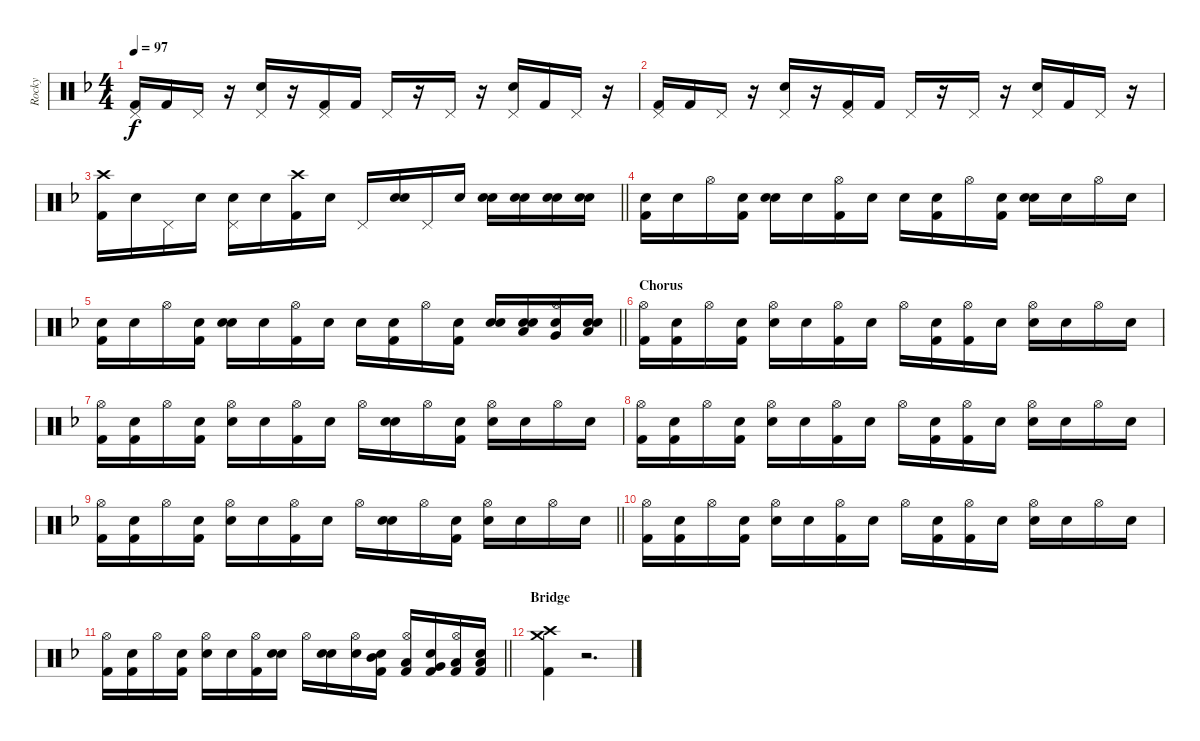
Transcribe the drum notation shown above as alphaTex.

\track ("Rocky" "Rocky") {instrument percussion}
\staff {score}
\articulation defaults
\ts (4 4)
\tempo 97
\clef neutral
\ks f
("Pedal Hi-Hat (hit)" "Kick (hit) 2").16{dy f} "Kick (hit) 2".16 "Pedal Hi-Hat (hit)".16 r.16 ("Pedal Hi-Hat (hit)" "Electric Snare (hit)").16 r.16 ("Pedal Hi-Hat (hit)" "Kick (hit) 2").16 "Kick (hit) 2".16 "Pedal Hi-Hat (hit)".16 r.16 "Pedal Hi-Hat (hit)".16 r.16 ("Pedal Hi-Hat (hit)" "Electric Snare (hit)").16 "Kick (hit) 2".16 "Pedal Hi-Hat (hit)".16 r.16 |
("Pedal Hi-Hat (hit)" "Kick (hit) 2").16 "Kick (hit) 2".16 "Pedal Hi-Hat (hit)".16 r.16 ("Pedal Hi-Hat (hit)" "Electric Snare (hit)").16 r.16 ("Pedal Hi-Hat (hit)" "Kick (hit) 2").16 "Kick (hit) 2".16 "Pedal Hi-Hat (hit)".16 r.16 "Pedal Hi-Hat (hit)".16 r.16 ("Pedal Hi-Hat (hit)" "Electric Snare (hit)").16 "Kick (hit) 2".16 "Pedal Hi-Hat (hit)".16 r.16 |
\barLineRight lightlight
("Crash high (hit)" "Kick (hit) 2").16 "Snare (hit)".16 "Pedal Hi-Hat (hit)".16 "Snare (hit)".16 ("Pedal Hi-Hat (hit)" "Electric Snare (hit)").16 "Snare (hit)".16 ("Crash high (hit)" "Kick (hit) 2").16 "Snare (hit)".16 "Pedal Hi-Hat (hit)".16 ("Snare (hit)" "Electric Snare (hit)").16 "Pedal Hi-Hat (hit)".16 "Snare (hit)".16 ("Snare (hit)" "Snare (hit) 2").16 ("Snare (hit)" "Snare (hit) 2").16 ("Snare (hit)" "Snare (hit) 2").16 ("Snare (hit)" "Snare (hit) 2").16 |
("Snare (hit)" "Kick (hit) 2").16 "Snare (hit)".16 "Hi-Hat (open)".16 ("Snare (hit)" "Kick (hit) 2").16 ("Snare (hit)" "Snare (hit) 2").16 "Snare (hit)".16 ("Hi-Hat (open)" "Kick (hit) 2").16 "Snare (hit)".16 "Snare (hit)".16 ("Snare (hit)" "Kick (hit) 2").16 "Hi-Hat (open)".16 ("Snare (hit)" "Kick (hit) 2").16 ("Snare (hit)" "Snare (hit) 2").16 "Snare (hit)".16 "Hi-Hat (open)".16 "Snare (hit)".16 |
\barLineRight lightlight
("Snare (hit)" "Kick (hit) 2").16 "Snare (hit)".16 "Hi-Hat (open)".16 ("Snare (hit)" "Kick (hit) 2").16 ("Snare (hit)" "Snare (hit) 2").16 "Snare (hit)".16 ("Hi-Hat (open)" "Kick (hit) 2").16 "Snare (hit)".16 "Snare (hit)".16 ("Snare (hit)" "Kick (hit) 2").16 "Hi-Hat (open)".16 ("Snare (hit)" "Kick (hit) 2").16 ("Snare (hit)" "Snare (hit) 2").16 ("Snare (hit)" "Low Tom (hit)" "Snare (hit) 2").16 ("Hi-Hat (open)" "Very Low Tom (hit)" "Snare (hit) 2").16 ("Snare (hit)" "Low Floor Tom (hit)" "Snare (hit) 2").16 |
\section ("" "Chorus")
("Hi-Hat (open)" "Kick (hit) 2").16 ("Snare (hit)" "Kick (hit) 2").16 "Hi-Hat (open)".16 ("Snare (hit)" "Kick (hit) 2").16 ("Hi-Hat (open)" "Snare (hit) 2").16 "Snare (hit)".16 ("Hi-Hat (open)" "Kick (hit) 2").16 "Snare (hit)".16 "Hi-Hat (open)".16 ("Snare (hit)" "Kick (hit) 2").16 ("Hi-Hat (open)" "Kick (hit) 2").16 "Snare (hit)".16 ("Hi-Hat (open)" "Snare (hit) 2").16 "Snare (hit)".16 "Hi-Hat (open)".16 "Snare (hit)".16 |
("Hi-Hat (open)" "Kick (hit) 2").16 ("Snare (hit)" "Kick (hit) 2").16 "Hi-Hat (open)".16 ("Snare (hit)" "Kick (hit) 2").16 ("Hi-Hat (open)" "Snare (hit) 2").16 "Snare (hit)".16 ("Hi-Hat (open)" "Kick (hit) 2").16 "Snare (hit)".16 "Hi-Hat (open)".16 ("Snare (hit)" "Snare (hit) 2").16 "Hi-Hat (open)".16 ("Snare (hit)" "Kick (hit) 2").16 ("Hi-Hat (open)" "Snare (hit) 2").16 "Snare (hit)".16 "Hi-Hat (open)".16 "Snare (hit)".16 |
("Hi-Hat (open)" "Kick (hit) 2").16 ("Snare (hit)" "Kick (hit) 2").16 "Hi-Hat (open)".16 ("Snare (hit)" "Kick (hit) 2").16 ("Hi-Hat (open)" "Snare (hit) 2").16 "Snare (hit)".16 ("Hi-Hat (open)" "Kick (hit) 2").16 "Snare (hit)".16 "Hi-Hat (open)".16 ("Snare (hit)" "Kick (hit) 2").16 ("Hi-Hat (open)" "Kick (hit) 2").16 "Snare (hit)".16 ("Hi-Hat (open)" "Snare (hit) 2").16 "Snare (hit)".16 "Hi-Hat (open)".16 "Snare (hit)".16 |
\barLineRight lightlight
("Hi-Hat (open)" "Kick (hit) 2").16 ("Snare (hit)" "Kick (hit) 2").16 "Hi-Hat (open)".16 ("Snare (hit)" "Kick (hit) 2").16 ("Hi-Hat (open)" "Snare (hit) 2").16 "Snare (hit)".16 ("Hi-Hat (open)" "Kick (hit) 2").16 "Snare (hit)".16 "Hi-Hat (open)".16 ("Snare (hit)" "Snare (hit) 2").16 "Hi-Hat (open)".16 ("Snare (hit)" "Kick (hit) 2").16 ("Hi-Hat (open)" "Snare (hit) 2").16 "Snare (hit)".16 "Hi-Hat (open)".16 "Snare (hit)".16 |
("Hi-Hat (open)" "Kick (hit) 2").16 ("Snare (hit)" "Kick (hit) 2").16 "Hi-Hat (open)".16 ("Snare (hit)" "Kick (hit) 2").16 ("Hi-Hat (open)" "Snare (hit) 2").16 "Snare (hit)".16 ("Hi-Hat (open)" "Kick (hit) 2").16 "Snare (hit)".16 "Hi-Hat (open)".16 ("Snare (hit)" "Kick (hit) 2").16 ("Hi-Hat (open)" "Kick (hit) 2").16 "Snare (hit)".16 ("Hi-Hat (open)" "Snare (hit) 2").16 "Snare (hit)".16 "Hi-Hat (open)".16 "Snare (hit)".16 |
\barLineRight lightlight
("Hi-Hat (open)" "Kick (hit) 2").16 ("Snare (hit)" "Kick (hit) 2").16 "Hi-Hat (open)".16 ("Snare (hit)" "Kick (hit) 2").16 ("Hi-Hat (open)" "Snare (hit) 2").16 "Snare (hit)".16 ("Hi-Hat (open)" "Kick (hit) 2").16 ("Snare (hit)" "Snare (hit) 2").16 "Hi-Hat (open)".16 ("Snare (hit)" "Snare (hit) 2").16 ("Hi-Hat (open)" "Snare (hit) 2").16 ("Snare (hit)" "Mid Tom (hit)" "Kick (hit) 2").16 ("Hi-Hat (open)" "Low Tom (hit)" "Kick (hit) 2").16 ("Snare (hit)" "Very Low Tom (hit)" "Kick (hit) 2").16 ("Hi-Hat (open)" "Low Tom (hit)" "Kick (hit) 2").16 ("Snare (hit)" "Low Floor Tom (hit)" "Kick (hit) 2").16 |
\section ("" "Bridge")
("Crash medium (hit)" "Crash high (hit)" "Kick (hit) 2").4 r.2{d}
